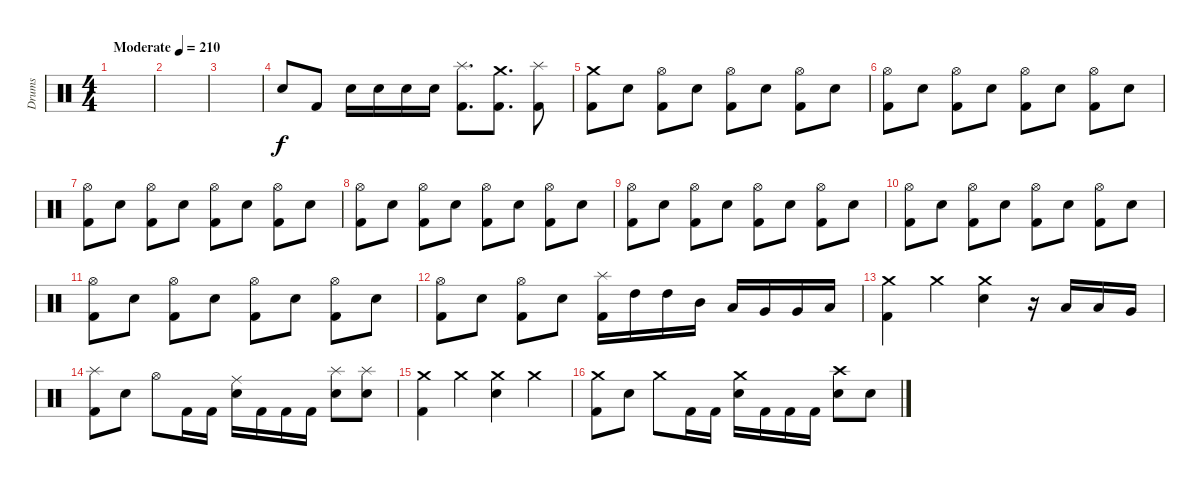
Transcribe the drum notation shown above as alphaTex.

\track ("Drums" "Drums") {instrument percussion}
\staff {score}
\articulation defaults
\ts (4 4)
\section ("" "")
\tempo (210 "Moderate")
\clef neutral
\ks c
|
|
|
"Electric Snare (hit)".8 "Kick (hit) 2".8 "Electric Snare (hit)".16 "Electric Snare (hit)".16 "Electric Snare (hit)".16 "Electric Snare (hit)".16 ("Splash (hit)" "Kick (hit) 2").8{d} ("Crash medium (hit)" "Kick (hit) 2").8{d} ("Splash (hit)" "Kick (hit) 2").8 |
("Crash medium (hit)" "Kick (hit) 2").8 "Electric Snare (hit)".8 ("Hi-Hat (open)" "Kick (hit) 2").8 "Electric Snare (hit)".8 ("Hi-Hat (open)" "Kick (hit) 2").8 "Electric Snare (hit)".8 ("Hi-Hat (open)" "Kick (hit) 2").8 "Electric Snare (hit)".8 |
("Hi-Hat (open)" "Kick (hit) 2").8 "Electric Snare (hit)".8 ("Hi-Hat (open)" "Kick (hit) 2").8 "Electric Snare (hit)".8 ("Hi-Hat (open)" "Kick (hit) 2").8 "Electric Snare (hit)".8 ("Hi-Hat (open)" "Kick (hit) 2").8 "Electric Snare (hit)".8 |
("Hi-Hat (open)" "Kick (hit) 2").8 "Electric Snare (hit)".8 ("Hi-Hat (open)" "Kick (hit) 2").8 "Electric Snare (hit)".8 ("Hi-Hat (open)" "Kick (hit) 2").8 "Electric Snare (hit)".8 ("Hi-Hat (open)" "Kick (hit) 2").8 "Electric Snare (hit)".8 |
("Hi-Hat (open)" "Kick (hit) 2").8 "Electric Snare (hit)".8 ("Hi-Hat (open)" "Kick (hit) 2").8 "Electric Snare (hit)".8 ("Hi-Hat (open)" "Kick (hit) 2").8 "Electric Snare (hit)".8 ("Hi-Hat (open)" "Kick (hit) 2").8 "Electric Snare (hit)".8 |
("Hi-Hat (open)" "Kick (hit) 2").8 "Electric Snare (hit)".8 ("Hi-Hat (open)" "Kick (hit) 2").8 "Electric Snare (hit)".8 ("Hi-Hat (open)" "Kick (hit) 2").8 "Electric Snare (hit)".8 ("Hi-Hat (open)" "Kick (hit) 2").8 "Electric Snare (hit)".8 |
("Hi-Hat (open)" "Kick (hit) 2").8 "Electric Snare (hit)".8 ("Hi-Hat (open)" "Kick (hit) 2").8 "Electric Snare (hit)".8 ("Hi-Hat (open)" "Kick (hit) 2").8 "Electric Snare (hit)".8 ("Hi-Hat (open)" "Kick (hit) 2").8 "Electric Snare (hit)".8 |
("Hi-Hat (open)" "Kick (hit) 2").8 "Electric Snare (hit)".8 ("Hi-Hat (open)" "Kick (hit) 2").8 "Electric Snare (hit)".8 ("Hi-Hat (open)" "Kick (hit) 2").8 "Electric Snare (hit)".8 ("Hi-Hat (open)" "Kick (hit) 2").8 "Electric Snare (hit)".8 |
("Hi-Hat (open)" "Kick (hit) 2").8 "Electric Snare (hit)".8 ("Hi-Hat (open)" "Kick (hit) 2").8 "Electric Snare (hit)".8 ("Splash (hit)" "Kick (hit) 2").16 "High Tom (hit)".16 "High Tom (hit)".16 "Mid Tom (hit)".16 "Low Tom (hit)".16 "Very Low Tom (hit)".16 "Very Low Tom (hit)".16 "Low Floor Tom (hit)".16 |
("Crash medium (hit)" "Kick (hit) 2").4 "Crash medium (hit)".4 ("Crash medium (hit)" "Electric Snare (hit)").4 r.16 "Low Tom (hit)".16 "Low Tom (hit)".16 "Very Low Tom (hit)".16 |
("Splash (hit)" "Kick (hit) 2").8 "Electric Snare (hit)".8 "Hi-Hat (open)".8 "Kick (hit) 2".16 "Kick (hit) 2".16 ("Ride (middle)" "Electric Snare (hit)").16 "Kick (hit) 2".16 "Kick (hit) 2".16 "Kick (hit) 2".16 ("Splash (hit)" "Electric Snare (hit)").8 ("Splash (hit)" "Electric Snare (hit)").8 |
("Crash medium (hit)" "Kick (hit) 2").4 "Crash medium (hit)".4 ("Crash medium (hit)" "Electric Snare (hit)").4 "Crash medium (hit)".4 |
("Crash medium (hit)" "Kick (hit) 2").8 "Electric Snare (hit)".8 "Crash medium (hit)".8 "Kick (hit) 2".16 "Kick (hit) 2".16 ("Crash medium (hit)" "Electric Snare (hit)").16 "Kick (hit) 2".16 "Kick (hit) 2".16 "Kick (hit) 2".16 ("Crash high (hit)" "Electric Snare (hit)").8 "Electric Snare (hit)".8
